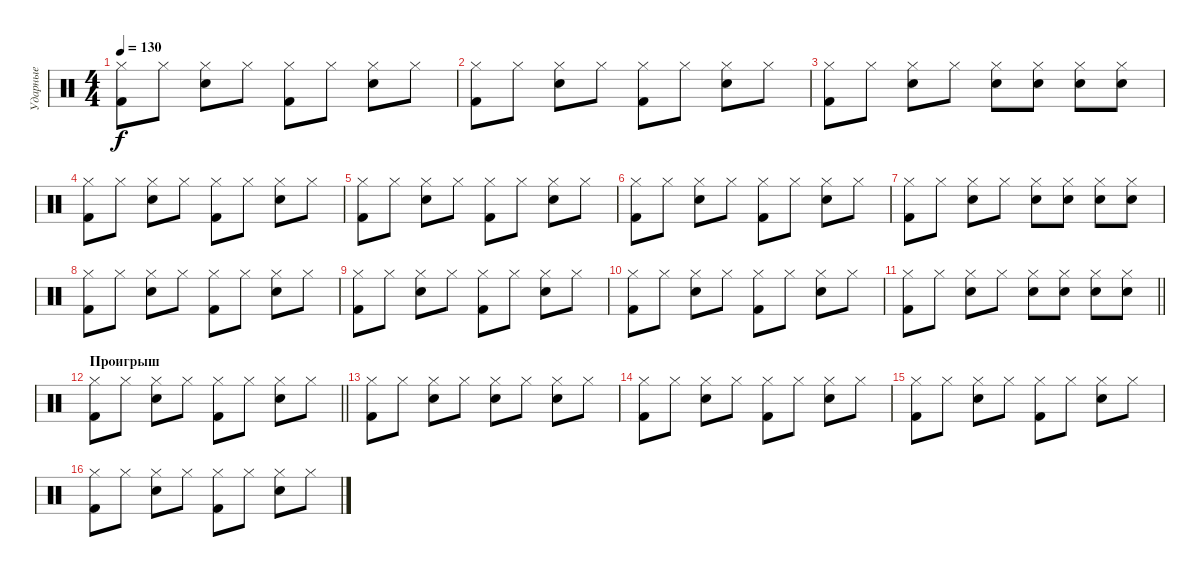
\track ("Ударные" "Ударные") {instrument percussion}
\staff {score}
\articulation defaults
\ts (4 4)
\tempo 130
\clef neutral
\ks c
("Hi-Hat (closed)" "Kick (hit) 2").8{dy f} "Hi-Hat (closed)".8 ("Hi-Hat (closed)" "Snare (hit) 2").8 "Hi-Hat (closed)".8 ("Hi-Hat (closed)" "Kick (hit) 2").8 "Hi-Hat (closed)".8 ("Hi-Hat (closed)" "Snare (hit) 2").8 "Hi-Hat (closed)".8 |
("Hi-Hat (closed)" "Kick (hit) 2").8 "Hi-Hat (closed)".8 ("Hi-Hat (closed)" "Snare (hit) 2").8 "Hi-Hat (closed)".8 ("Hi-Hat (closed)" "Kick (hit) 2").8 "Hi-Hat (closed)".8 ("Hi-Hat (closed)" "Snare (hit) 2").8 "Hi-Hat (closed)".8 |
("Hi-Hat (closed)" "Kick (hit) 2").8 "Hi-Hat (closed)".8 ("Hi-Hat (closed)" "Snare (hit) 2").8 "Hi-Hat (closed)".8 ("Hi-Hat (closed)" "Snare (hit) 2").8 ("Hi-Hat (closed)" "Snare (hit) 2").8 ("Hi-Hat (closed)" "Snare (hit) 2").8 ("Hi-Hat (closed)" "Snare (hit) 2").8 |
("Hi-Hat (closed)" "Kick (hit) 2").8 "Hi-Hat (closed)".8 ("Hi-Hat (closed)" "Snare (hit) 2").8 "Hi-Hat (closed)".8 ("Hi-Hat (closed)" "Kick (hit) 2").8 "Hi-Hat (closed)".8 ("Hi-Hat (closed)" "Snare (hit) 2").8 "Hi-Hat (closed)".8 |
("Hi-Hat (closed)" "Kick (hit) 2").8 "Hi-Hat (closed)".8 ("Hi-Hat (closed)" "Snare (hit) 2").8 "Hi-Hat (closed)".8 ("Hi-Hat (closed)" "Kick (hit) 2").8 "Hi-Hat (closed)".8 ("Hi-Hat (closed)" "Snare (hit) 2").8 "Hi-Hat (closed)".8 |
("Hi-Hat (closed)" "Kick (hit) 2").8 "Hi-Hat (closed)".8 ("Hi-Hat (closed)" "Snare (hit) 2").8 "Hi-Hat (closed)".8 ("Hi-Hat (closed)" "Kick (hit) 2").8 "Hi-Hat (closed)".8 ("Hi-Hat (closed)" "Snare (hit) 2").8 "Hi-Hat (closed)".8 |
("Hi-Hat (closed)" "Kick (hit) 2").8 "Hi-Hat (closed)".8 ("Hi-Hat (closed)" "Snare (hit) 2").8 "Hi-Hat (closed)".8 ("Hi-Hat (closed)" "Snare (hit) 2").8 ("Hi-Hat (closed)" "Snare (hit) 2").8 ("Hi-Hat (closed)" "Snare (hit) 2").8 ("Hi-Hat (closed)" "Snare (hit) 2").8 |
("Hi-Hat (closed)" "Kick (hit) 2").8 "Hi-Hat (closed)".8 ("Hi-Hat (closed)" "Snare (hit) 2").8 "Hi-Hat (closed)".8 ("Hi-Hat (closed)" "Kick (hit) 2").8 "Hi-Hat (closed)".8 ("Hi-Hat (closed)" "Snare (hit) 2").8 "Hi-Hat (closed)".8 |
("Hi-Hat (closed)" "Kick (hit) 2").8 "Hi-Hat (closed)".8 ("Hi-Hat (closed)" "Snare (hit) 2").8 "Hi-Hat (closed)".8 ("Hi-Hat (closed)" "Kick (hit) 2").8 "Hi-Hat (closed)".8 ("Hi-Hat (closed)" "Snare (hit) 2").8 "Hi-Hat (closed)".8 |
("Hi-Hat (closed)" "Kick (hit) 2").8 "Hi-Hat (closed)".8 ("Hi-Hat (closed)" "Snare (hit) 2").8 "Hi-Hat (closed)".8 ("Hi-Hat (closed)" "Kick (hit) 2").8 "Hi-Hat (closed)".8 ("Hi-Hat (closed)" "Snare (hit) 2").8 "Hi-Hat (closed)".8 |
\barLineRight lightlight
("Hi-Hat (closed)" "Kick (hit) 2").8 "Hi-Hat (closed)".8 ("Hi-Hat (closed)" "Snare (hit) 2").8 "Hi-Hat (closed)".8 ("Hi-Hat (closed)" "Snare (hit) 2").8 ("Hi-Hat (closed)" "Snare (hit) 2").8 ("Hi-Hat (closed)" "Snare (hit) 2").8 ("Hi-Hat (closed)" "Snare (hit) 2").8 |
\section ("" "Проигрыш")
\barLineRight lightlight
("Hi-Hat (closed)" "Kick (hit) 2").8 "Hi-Hat (closed)".8 ("Hi-Hat (closed)" "Snare (hit) 2").8 "Hi-Hat (closed)".8 ("Hi-Hat (closed)" "Kick (hit) 2").8 "Hi-Hat (closed)".8 ("Hi-Hat (closed)" "Snare (hit) 2").8 "Hi-Hat (closed)".8 |
\section ("" "")
("Hi-Hat (closed)" "Kick (hit) 2").8 "Hi-Hat (closed)".8 ("Hi-Hat (closed)" "Snare (hit) 2").8 "Hi-Hat (closed)".8 ("Hi-Hat (closed)" "Snare (hit) 2").8 "Hi-Hat (closed)".8 ("Hi-Hat (closed)" "Snare (hit) 2").8 "Hi-Hat (closed)".8 |
("Hi-Hat (closed)" "Kick (hit) 2").8 "Hi-Hat (closed)".8 ("Hi-Hat (closed)" "Snare (hit) 2").8 "Hi-Hat (closed)".8 ("Hi-Hat (closed)" "Kick (hit) 2").8 "Hi-Hat (closed)".8 ("Hi-Hat (closed)" "Snare (hit) 2").8 "Hi-Hat (closed)".8 |
("Hi-Hat (closed)" "Kick (hit) 2").8 "Hi-Hat (closed)".8 ("Hi-Hat (closed)" "Snare (hit) 2").8 "Hi-Hat (closed)".8 ("Hi-Hat (closed)" "Kick (hit) 2").8 "Hi-Hat (closed)".8 ("Hi-Hat (closed)" "Snare (hit) 2").8 "Hi-Hat (closed)".8 |
("Hi-Hat (closed)" "Kick (hit) 2").8 "Hi-Hat (closed)".8 ("Hi-Hat (closed)" "Snare (hit) 2").8 "Hi-Hat (closed)".8 ("Hi-Hat (closed)" "Kick (hit) 2").8 "Hi-Hat (closed)".8 ("Hi-Hat (closed)" "Snare (hit) 2").8 "Hi-Hat (closed)".8
